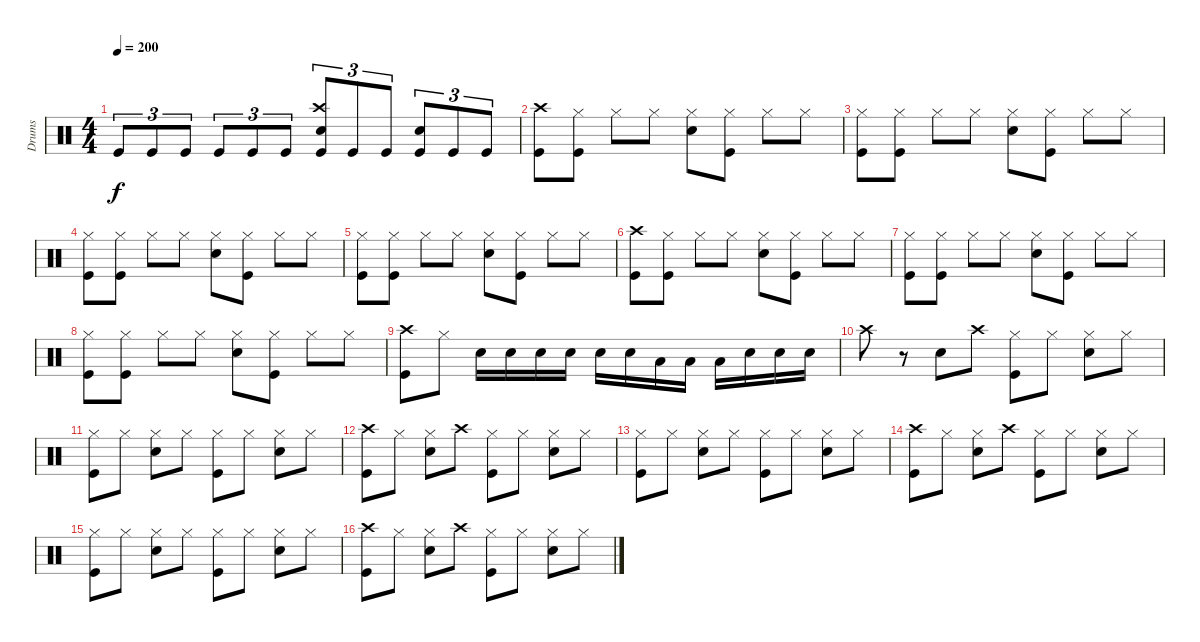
\track ("Drums" "Drums") {instrument percussion}
\staff {score}
\articulation defaults
\ts (4 4)
\tempo 200
\clef neutral
\ks c "Kick (hit)".8{tu (3 2) dy f} "Kick (hit)".8{tu (3 2)} "Kick (hit)".8{tu (3 2)} "Kick (hit)".8{tu (3 2)} "Kick (hit)".8{tu (3 2)} "Kick (hit)".8{tu (3 2)}
("Crash high (hit)" "Snare (hit) 2" "Kick (hit)").8{tu (3 2)} "Kick (hit)".8{tu (3 2)} "Kick (hit)".8{tu (3 2)} ("Snare (hit) 2" "Kick (hit)").8{tu (3 2)} "Kick (hit)".8{tu (3 2)} "Kick (hit)".8{tu (3 2)} |
("Crash high (hit)" "Kick (hit)").8 ("Hi-Hat (closed)" "Kick (hit)").8 "Hi-Hat (closed)".8 "Hi-Hat (closed)".8 ("Hi-Hat (closed)" "Snare (hit) 2").8 ("Hi-Hat (closed)" "Kick (hit)").8 "Hi-Hat (closed)".8 "Hi-Hat (closed)".8 |
("Hi-Hat (closed)" "Kick (hit)").8 ("Hi-Hat (closed)" "Kick (hit)").8 "Hi-Hat (closed)".8 "Hi-Hat (closed)".8 ("Hi-Hat (closed)" "Snare (hit) 2").8 ("Hi-Hat (closed)" "Kick (hit)").8 "Hi-Hat (closed)".8 "Hi-Hat (closed)".8 |
("Hi-Hat (closed)" "Kick (hit)").8 ("Hi-Hat (closed)" "Kick (hit)").8 "Hi-Hat (closed)".8 "Hi-Hat (closed)".8 ("Hi-Hat (closed)" "Snare (hit) 2").8 ("Hi-Hat (closed)" "Kick (hit)").8 "Hi-Hat (closed)".8 "Hi-Hat (closed)".8 |
("Hi-Hat (closed)" "Kick (hit)").8 ("Hi-Hat (closed)" "Kick (hit)").8 "Hi-Hat (closed)".8 "Hi-Hat (closed)".8 ("Hi-Hat (closed)" "Snare (hit) 2").8 ("Hi-Hat (closed)" "Kick (hit)").8 "Hi-Hat (closed)".8 "Hi-Hat (closed)".8 |
("Crash high (hit)" "Kick (hit)").8 ("Hi-Hat (closed)" "Kick (hit)").8 "Hi-Hat (closed)".8 "Hi-Hat (closed)".8 ("Hi-Hat (closed)" "Snare (hit) 2").8 ("Hi-Hat (closed)" "Kick (hit)").8 "Hi-Hat (closed)".8 "Hi-Hat (closed)".8 |
("Hi-Hat (closed)" "Kick (hit)").8 ("Hi-Hat (closed)" "Kick (hit)").8 "Hi-Hat (closed)".8 "Hi-Hat (closed)".8 ("Hi-Hat (closed)" "Snare (hit) 2").8 ("Hi-Hat (closed)" "Kick (hit)").8 "Hi-Hat (closed)".8 "Hi-Hat (closed)".8 |
("Hi-Hat (closed)" "Kick (hit)").8 ("Hi-Hat (closed)" "Kick (hit)").8 "Hi-Hat (closed)".8 "Hi-Hat (closed)".8 ("Hi-Hat (closed)" "Snare (hit) 2").8 ("Hi-Hat (closed)" "Kick (hit)").8 "Hi-Hat (closed)".8 "Hi-Hat (closed)".8 |
("Crash high (hit)" "Kick (hit)").8 "Hi-Hat (closed)".8 "Snare (hit) 2".16 "Snare (hit) 2".16 "Snare (hit) 2".16 "Snare (hit) 2".16 "Snare (hit) 2".16 "Snare (hit) 2".16 "Low Tom (hit)".16 "Low Tom (hit)".16 "Low Tom (hit)".16 "Snare (hit) 2".16 "Snare (hit) 2".16 "Snare (hit) 2".16 |
"Crash high (hit)".8 r.8 "Snare (hit) 2".8 "Crash high (hit)".8 ("Hi-Hat (closed)" "Kick (hit)").8 "Hi-Hat (closed)".8 ("Hi-Hat (closed)" "Snare (hit) 2").8 "Hi-Hat (closed)".8 |
("Hi-Hat (closed)" "Kick (hit)").8 "Hi-Hat (closed)".8 ("Hi-Hat (closed)" "Snare (hit) 2").8 "Hi-Hat (closed)".8 ("Hi-Hat (closed)" "Kick (hit)").8 "Hi-Hat (closed)".8 ("Hi-Hat (closed)" "Snare (hit) 2").8 "Hi-Hat (closed)".8 |
("Crash high (hit)" "Kick (hit)").8 "Hi-Hat (closed)".8 ("Hi-Hat (closed)" "Snare (hit) 2").8 "Crash high (hit)".8 ("Hi-Hat (closed)" "Kick (hit)").8 "Hi-Hat (closed)".8 ("Hi-Hat (closed)" "Snare (hit) 2").8 "Hi-Hat (closed)".8 |
("Hi-Hat (closed)" "Kick (hit)").8 "Hi-Hat (closed)".8 ("Hi-Hat (closed)" "Snare (hit) 2").8 "Hi-Hat (closed)".8 ("Hi-Hat (closed)" "Kick (hit)").8 "Hi-Hat (closed)".8 ("Hi-Hat (closed)" "Snare (hit) 2").8 "Hi-Hat (closed)".8 |
("Crash high (hit)" "Kick (hit)").8 "Hi-Hat (closed)".8 ("Hi-Hat (closed)" "Snare (hit) 2").8 "Crash high (hit)".8 ("Hi-Hat (closed)" "Kick (hit)").8 "Hi-Hat (closed)".8 ("Hi-Hat (closed)" "Snare (hit) 2").8 "Hi-Hat (closed)".8 |
("Hi-Hat (closed)" "Kick (hit)").8 "Hi-Hat (closed)".8 ("Hi-Hat (closed)" "Snare (hit) 2").8 "Hi-Hat (closed)".8 ("Hi-Hat (closed)" "Kick (hit)").8 "Hi-Hat (closed)".8 ("Hi-Hat (closed)" "Snare (hit) 2").8 "Hi-Hat (closed)".8 |
("Crash high (hit)" "Kick (hit)").8 "Hi-Hat (closed)".8 ("Hi-Hat (closed)" "Snare (hit) 2").8 "Crash high (hit)".8 ("Hi-Hat (closed)" "Kick (hit)").8 "Hi-Hat (closed)".8 ("Hi-Hat (closed)" "Snare (hit) 2").8 "Hi-Hat (closed)".8
